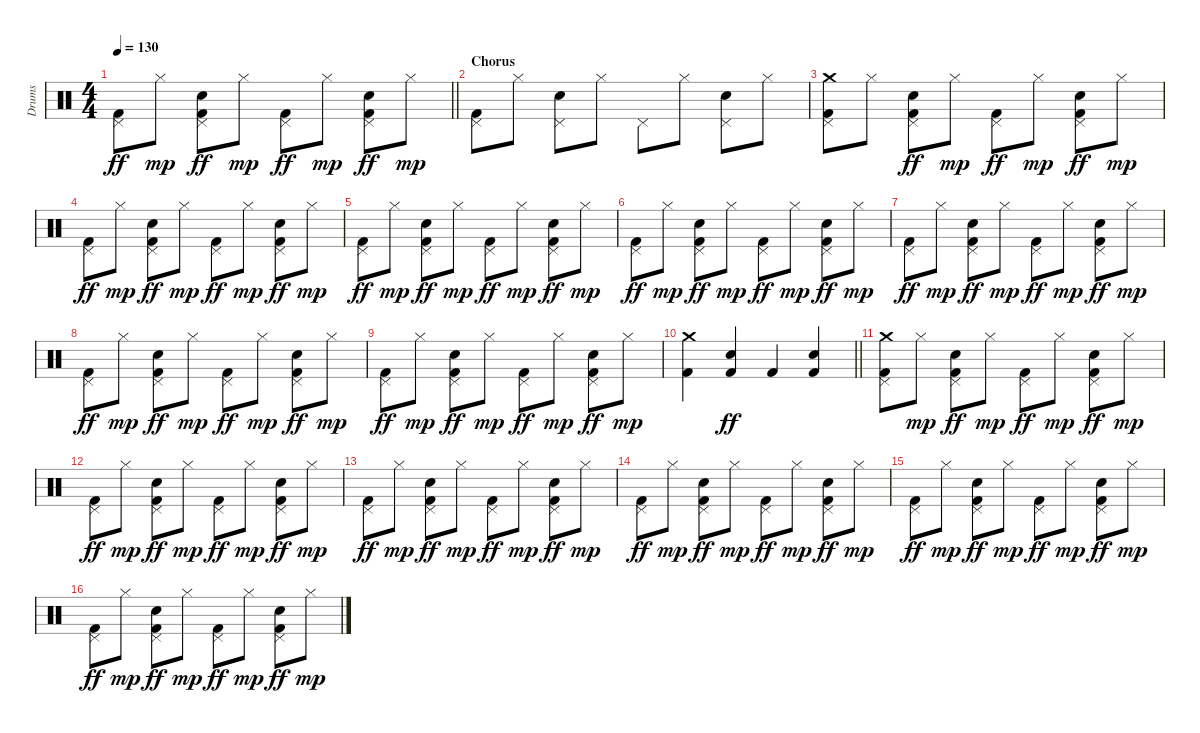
\track ("Drums" "Drums") {instrument percussion}
\staff {score}
\articulation defaults
\ts (4 4)
\tempo 130
\clef neutral
\barLineRight lightlight
\ks c
("Pedal Hi-Hat (hit)" "Kick (hit) 2").8{dy ff} "Hi-Hat (closed)".8{dy mp} ("Hand Clap (hit)" "Pedal Hi-Hat (hit)" "Kick (hit) 2").8{dy ff} "Hi-Hat (closed)".8{dy mp} ("Pedal Hi-Hat (hit)" "Kick (hit) 2").8{dy ff} "Hi-Hat (closed)".8{dy mp} ("Hand Clap (hit)" "Pedal Hi-Hat (hit)" "Kick (hit) 2").8{dy ff} "Hi-Hat (closed)".8{dy mp} |
\section ("" "Chorus")
("Kick (hit) 2" "Pedal Hi-Hat (hit)").8 "Hi-Hat (closed)".8 ("Hand Clap (hit)" "Pedal Hi-Hat (hit)").8 "Hi-Hat (closed)".8 "Pedal Hi-Hat (hit)".8 "Hi-Hat (closed)".8 ("Hand Clap (hit)" "Pedal Hi-Hat (hit)").8 "Hi-Hat (closed)".8 |
("Pedal Hi-Hat (hit)" "Kick (hit) 2" "Crash medium (hit)").8 "Hi-Hat (closed)".8 ("Hand Clap (hit)" "Pedal Hi-Hat (hit)" "Kick (hit) 2").8{dy ff} "Hi-Hat (closed)".8{dy mp} ("Pedal Hi-Hat (hit)" "Kick (hit) 2").8{dy ff} "Hi-Hat (closed)".8{dy mp} ("Hand Clap (hit)" "Pedal Hi-Hat (hit)" "Kick (hit) 2").8{dy ff} "Hi-Hat (closed)".8{dy mp} |
("Pedal Hi-Hat (hit)" "Kick (hit) 2").8{dy ff} "Hi-Hat (closed)".8{dy mp} ("Hand Clap (hit)" "Pedal Hi-Hat (hit)" "Kick (hit) 2").8{dy ff} "Hi-Hat (closed)".8{dy mp} ("Pedal Hi-Hat (hit)" "Kick (hit) 2").8{dy ff} "Hi-Hat (closed)".8{dy mp} ("Hand Clap (hit)" "Pedal Hi-Hat (hit)" "Kick (hit) 2").8{dy ff} "Hi-Hat (closed)".8{dy mp} |
("Pedal Hi-Hat (hit)" "Kick (hit) 2").8{dy ff} "Hi-Hat (closed)".8{dy mp} ("Hand Clap (hit)" "Pedal Hi-Hat (hit)" "Kick (hit) 2").8{dy ff} "Hi-Hat (closed)".8{dy mp} ("Pedal Hi-Hat (hit)" "Kick (hit) 2").8{dy ff} "Hi-Hat (closed)".8{dy mp} ("Hand Clap (hit)" "Pedal Hi-Hat (hit)" "Kick (hit) 2").8{dy ff} "Hi-Hat (closed)".8{dy mp} |
("Pedal Hi-Hat (hit)" "Kick (hit) 2").8{dy ff} "Hi-Hat (closed)".8{dy mp} ("Hand Clap (hit)" "Pedal Hi-Hat (hit)" "Kick (hit) 2").8{dy ff} "Hi-Hat (closed)".8{dy mp} ("Pedal Hi-Hat (hit)" "Kick (hit) 2").8{dy ff} "Hi-Hat (closed)".8{dy mp} ("Hand Clap (hit)" "Pedal Hi-Hat (hit)" "Kick (hit) 2").8{dy ff} "Hi-Hat (closed)".8{dy mp} |
("Pedal Hi-Hat (hit)" "Kick (hit) 2").8{dy ff} "Hi-Hat (closed)".8{dy mp} ("Hand Clap (hit)" "Pedal Hi-Hat (hit)" "Kick (hit) 2").8{dy ff} "Hi-Hat (closed)".8{dy mp} ("Pedal Hi-Hat (hit)" "Kick (hit) 2").8{dy ff} "Hi-Hat (closed)".8{dy mp} ("Hand Clap (hit)" "Pedal Hi-Hat (hit)" "Kick (hit) 2").8{dy ff} "Hi-Hat (closed)".8{dy mp} |
("Pedal Hi-Hat (hit)" "Kick (hit) 2").8{dy ff} "Hi-Hat (closed)".8{dy mp} ("Hand Clap (hit)" "Pedal Hi-Hat (hit)" "Kick (hit) 2").8{dy ff} "Hi-Hat (closed)".8{dy mp} ("Pedal Hi-Hat (hit)" "Kick (hit) 2").8{dy ff} "Hi-Hat (closed)".8{dy mp} ("Hand Clap (hit)" "Pedal Hi-Hat (hit)" "Kick (hit) 2").8{dy ff} "Hi-Hat (closed)".8{dy mp} |
("Pedal Hi-Hat (hit)" "Kick (hit) 2").8{dy ff} "Hi-Hat (closed)".8{dy mp} ("Hand Clap (hit)" "Pedal Hi-Hat (hit)" "Kick (hit) 2").8{dy ff} "Hi-Hat (closed)".8{dy mp} ("Pedal Hi-Hat (hit)" "Kick (hit) 2").8{dy ff} "Hi-Hat (closed)".8{dy mp} ("Hand Clap (hit)" "Pedal Hi-Hat (hit)" "Kick (hit) 2").8{dy ff} "Hi-Hat (closed)".8{dy mp} |
\barLineRight lightlight
("Kick (hit) 2" "Crash medium (hit)").4 ("Hand Clap (hit)" "Kick (hit) 2").4{dy ff} "Kick (hit) 2".4 ("Hand Clap (hit)" "Kick (hit) 2").4 |
("Crash medium (hit)" "Pedal Hi-Hat (hit)" "Kick (hit) 2").8 "Hi-Hat (closed)".8{dy mp} ("Hand Clap (hit)" "Pedal Hi-Hat (hit)" "Kick (hit) 2").8{dy ff} "Hi-Hat (closed)".8{dy mp} ("Pedal Hi-Hat (hit)" "Kick (hit) 2").8{dy ff} "Hi-Hat (closed)".8{dy mp} ("Hand Clap (hit)" "Pedal Hi-Hat (hit)" "Kick (hit) 2").8{dy ff} "Hi-Hat (closed)".8{dy mp} |
("Pedal Hi-Hat (hit)" "Kick (hit) 2").8{dy ff} "Hi-Hat (closed)".8{dy mp} ("Hand Clap (hit)" "Pedal Hi-Hat (hit)" "Kick (hit) 2").8{dy ff} "Hi-Hat (closed)".8{dy mp} ("Pedal Hi-Hat (hit)" "Kick (hit) 2").8{dy ff} "Hi-Hat (closed)".8{dy mp} ("Hand Clap (hit)" "Pedal Hi-Hat (hit)" "Kick (hit) 2").8{dy ff} "Hi-Hat (closed)".8{dy mp} |
("Pedal Hi-Hat (hit)" "Kick (hit) 2").8{dy ff} "Hi-Hat (closed)".8{dy mp} ("Hand Clap (hit)" "Pedal Hi-Hat (hit)" "Kick (hit) 2").8{dy ff} "Hi-Hat (closed)".8{dy mp} ("Pedal Hi-Hat (hit)" "Kick (hit) 2").8{dy ff} "Hi-Hat (closed)".8{dy mp} ("Hand Clap (hit)" "Pedal Hi-Hat (hit)" "Kick (hit) 2").8{dy ff} "Hi-Hat (closed)".8{dy mp} |
("Pedal Hi-Hat (hit)" "Kick (hit) 2").8{dy ff} "Hi-Hat (closed)".8{dy mp} ("Hand Clap (hit)" "Pedal Hi-Hat (hit)" "Kick (hit) 2").8{dy ff} "Hi-Hat (closed)".8{dy mp} ("Pedal Hi-Hat (hit)" "Kick (hit) 2").8{dy ff} "Hi-Hat (closed)".8{dy mp} ("Hand Clap (hit)" "Pedal Hi-Hat (hit)" "Kick (hit) 2").8{dy ff} "Hi-Hat (closed)".8{dy mp} |
("Pedal Hi-Hat (hit)" "Kick (hit) 2").8{dy ff} "Hi-Hat (closed)".8{dy mp} ("Hand Clap (hit)" "Pedal Hi-Hat (hit)" "Kick (hit) 2").8{dy ff} "Hi-Hat (closed)".8{dy mp} ("Pedal Hi-Hat (hit)" "Kick (hit) 2").8{dy ff} "Hi-Hat (closed)".8{dy mp} ("Hand Clap (hit)" "Pedal Hi-Hat (hit)" "Kick (hit) 2").8{dy ff} "Hi-Hat (closed)".8{dy mp} |
("Pedal Hi-Hat (hit)" "Kick (hit) 2").8{dy ff} "Hi-Hat (closed)".8{dy mp} ("Hand Clap (hit)" "Pedal Hi-Hat (hit)" "Kick (hit) 2").8{dy ff} "Hi-Hat (closed)".8{dy mp} ("Pedal Hi-Hat (hit)" "Kick (hit) 2").8{dy ff} "Hi-Hat (closed)".8{dy mp} ("Hand Clap (hit)" "Pedal Hi-Hat (hit)" "Kick (hit) 2").8{dy ff} "Hi-Hat (closed)".8{dy mp}
